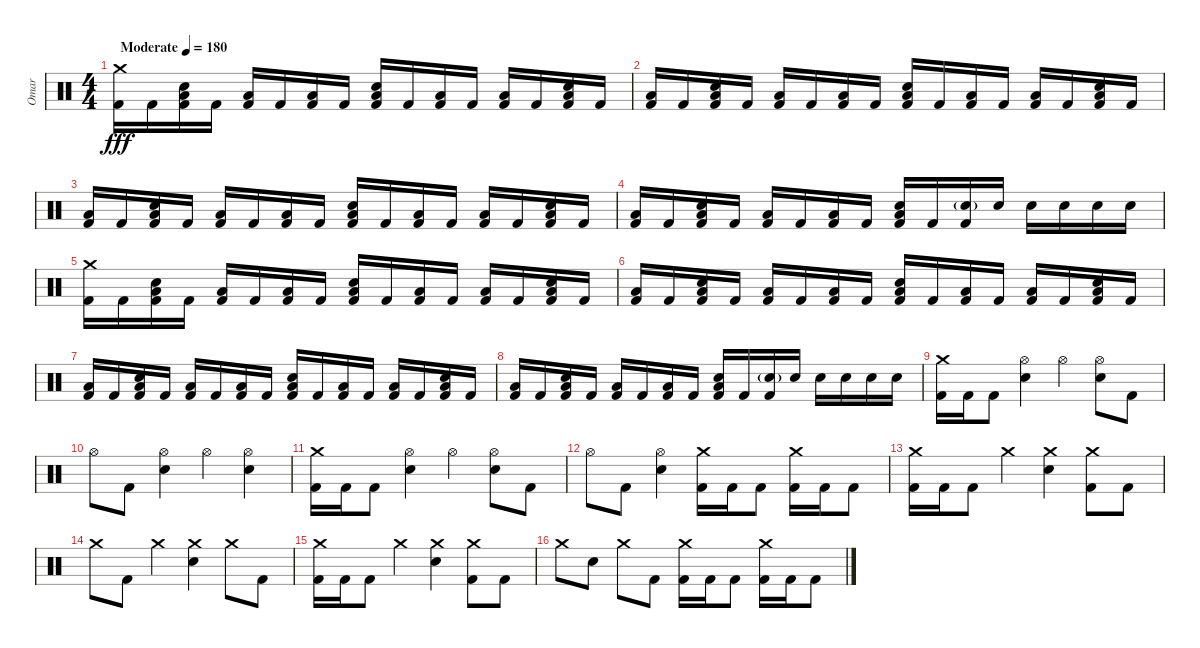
\track ("Omar" "Omar") {instrument percussion}
\staff {score}
\articulation defaults
\ts (4 4)
\tempo (180 "Moderate")
\clef neutral
\ks c
("Crash medium (hit)" "Kick (hit) 2").16{dy fff} "Kick (hit) 2".16 ("Electric Snare (hit)" "Low Floor Tom (hit)" "Kick (hit) 2").16 "Kick (hit) 2".16 ("Low Floor Tom (hit)" "Kick (hit) 2").16 "Kick (hit) 2".16 ("Low Floor Tom (hit)" "Kick (hit) 2").16 "Kick (hit) 2".16 ("Electric Snare (hit)" "Low Floor Tom (hit)" "Kick (hit) 2").16 "Kick (hit) 2".16 ("Low Floor Tom (hit)" "Kick (hit) 2").16 "Kick (hit) 2".16 ("Low Floor Tom (hit)" "Kick (hit) 2").16 "Kick (hit) 2".16 ("Electric Snare (hit)" "Low Floor Tom (hit)" "Kick (hit) 2").16 "Kick (hit) 2".16 |
("Low Floor Tom (hit)" "Kick (hit) 2").16 "Kick (hit) 2".16 ("Electric Snare (hit)" "Low Floor Tom (hit)" "Kick (hit) 2").16 "Kick (hit) 2".16 ("Low Floor Tom (hit)" "Kick (hit) 2").16 "Kick (hit) 2".16 ("Low Floor Tom (hit)" "Kick (hit) 2").16 "Kick (hit) 2".16 ("Electric Snare (hit)" "Low Floor Tom (hit)" "Kick (hit) 2").16 "Kick (hit) 2".16 ("Low Floor Tom (hit)" "Kick (hit) 2").16 "Kick (hit) 2".16 ("Low Floor Tom (hit)" "Kick (hit) 2").16 "Kick (hit) 2".16 ("Electric Snare (hit)" "Low Floor Tom (hit)" "Kick (hit) 2").16 "Kick (hit) 2".16 |
("Low Floor Tom (hit)" "Kick (hit) 2").16 "Kick (hit) 2".16 ("Electric Snare (hit)" "Low Floor Tom (hit)" "Kick (hit) 2").16 "Kick (hit) 2".16 ("Low Floor Tom (hit)" "Kick (hit) 2").16 "Kick (hit) 2".16 ("Low Floor Tom (hit)" "Kick (hit) 2").16 "Kick (hit) 2".16 ("Electric Snare (hit)" "Low Floor Tom (hit)" "Kick (hit) 2").16 "Kick (hit) 2".16 ("Low Floor Tom (hit)" "Kick (hit) 2").16 "Kick (hit) 2".16 ("Low Floor Tom (hit)" "Kick (hit) 2").16 "Kick (hit) 2".16 ("Electric Snare (hit)" "Low Floor Tom (hit)" "Kick (hit) 2").16 "Kick (hit) 2".16 |
("Low Floor Tom (hit)" "Kick (hit) 2").16 "Kick (hit) 2".16 ("Electric Snare (hit)" "Low Floor Tom (hit)" "Kick (hit) 2").16 "Kick (hit) 2".16 ("Low Floor Tom (hit)" "Kick (hit) 2").16 "Kick (hit) 2".16 ("Low Floor Tom (hit)" "Kick (hit) 2").16 "Kick (hit) 2".16 ("Electric Snare (hit)" "Low Floor Tom (hit)" "Kick (hit) 2").16 "Kick (hit) 2".16 ("Electric Snare (hit)"{g} "Kick (hit) 2").16 "Electric Snare (hit)".16 "Electric Snare (hit)".16 "Electric Snare (hit)".16 "Electric Snare (hit)".16 "Electric Snare (hit)".16 |
("Crash medium (hit)" "Kick (hit) 2").16 "Kick (hit) 2".16 ("Electric Snare (hit)" "Low Floor Tom (hit)" "Kick (hit) 2").16 "Kick (hit) 2".16 ("Low Floor Tom (hit)" "Kick (hit) 2").16 "Kick (hit) 2".16 ("Low Floor Tom (hit)" "Kick (hit) 2").16 "Kick (hit) 2".16 ("Electric Snare (hit)" "Low Floor Tom (hit)" "Kick (hit) 2").16 "Kick (hit) 2".16 ("Low Floor Tom (hit)" "Kick (hit) 2").16 "Kick (hit) 2".16 ("Low Floor Tom (hit)" "Kick (hit) 2").16 "Kick (hit) 2".16 ("Electric Snare (hit)" "Low Floor Tom (hit)" "Kick (hit) 2").16 "Kick (hit) 2".16 |
("Low Floor Tom (hit)" "Kick (hit) 2").16 "Kick (hit) 2".16 ("Electric Snare (hit)" "Low Floor Tom (hit)" "Kick (hit) 2").16 "Kick (hit) 2".16 ("Low Floor Tom (hit)" "Kick (hit) 2").16 "Kick (hit) 2".16 ("Low Floor Tom (hit)" "Kick (hit) 2").16 "Kick (hit) 2".16 ("Electric Snare (hit)" "Low Floor Tom (hit)" "Kick (hit) 2").16 "Kick (hit) 2".16 ("Low Floor Tom (hit)" "Kick (hit) 2").16 "Kick (hit) 2".16 ("Low Floor Tom (hit)" "Kick (hit) 2").16 "Kick (hit) 2".16 ("Electric Snare (hit)" "Low Floor Tom (hit)" "Kick (hit) 2").16 "Kick (hit) 2".16 |
("Low Floor Tom (hit)" "Kick (hit) 2").16 "Kick (hit) 2".16 ("Electric Snare (hit)" "Low Floor Tom (hit)" "Kick (hit) 2").16 "Kick (hit) 2".16 ("Low Floor Tom (hit)" "Kick (hit) 2").16 "Kick (hit) 2".16 ("Low Floor Tom (hit)" "Kick (hit) 2").16 "Kick (hit) 2".16 ("Electric Snare (hit)" "Low Floor Tom (hit)" "Kick (hit) 2").16 "Kick (hit) 2".16 ("Low Floor Tom (hit)" "Kick (hit) 2").16 "Kick (hit) 2".16 ("Low Floor Tom (hit)" "Kick (hit) 2").16 "Kick (hit) 2".16 ("Electric Snare (hit)" "Low Floor Tom (hit)" "Kick (hit) 2").16 "Kick (hit) 2".16 |
("Low Floor Tom (hit)" "Kick (hit) 2").16 "Kick (hit) 2".16 ("Electric Snare (hit)" "Low Floor Tom (hit)" "Kick (hit) 2").16 "Kick (hit) 2".16 ("Low Floor Tom (hit)" "Kick (hit) 2").16 "Kick (hit) 2".16 ("Low Floor Tom (hit)" "Kick (hit) 2").16 "Kick (hit) 2".16 ("Electric Snare (hit)" "Low Floor Tom (hit)" "Kick (hit) 2").16 "Kick (hit) 2".16 ("Electric Snare (hit)"{g} "Kick (hit) 2").16 "Electric Snare (hit)".16 "Electric Snare (hit)".16 "Electric Snare (hit)".16 "Electric Snare (hit)".16 "Electric Snare (hit)".16 |
("Crash medium (hit)" "Kick (hit) 2").16 "Kick (hit) 2".16 "Kick (hit) 2".8 ("Hi-Hat (open)" "Electric Snare (hit)").4 "Hi-Hat (open)".4 ("Hi-Hat (open)" "Electric Snare (hit)").8 "Kick (hit) 2".8 |
"Hi-Hat (open)".8 "Kick (hit) 2".8 ("Hi-Hat (open)" "Electric Snare (hit)").4 "Hi-Hat (open)".4 ("Hi-Hat (open)" "Electric Snare (hit)").4 |
("Crash medium (hit)" "Kick (hit) 2").16 "Kick (hit) 2".16 "Kick (hit) 2".8 ("Hi-Hat (open)" "Electric Snare (hit)").4 "Hi-Hat (open)".4 ("Hi-Hat (open)" "Electric Snare (hit)").8 "Kick (hit) 2".8 |
"Hi-Hat (open)".8 "Kick (hit) 2".8 ("Hi-Hat (open)" "Electric Snare (hit)").4 ("Crash medium (hit)" "Kick (hit) 2").16 "Kick (hit) 2".16 "Kick (hit) 2".8 ("Crash medium (hit)" "Kick (hit) 2").16 "Kick (hit) 2".16 "Kick (hit) 2".8 |
("Crash medium (hit)" "Kick (hit) 2").16 "Kick (hit) 2".16 "Kick (hit) 2".8 "Crash medium (hit)".4 ("Crash medium (hit)" "Electric Snare (hit)").4 ("Crash medium (hit)" "Kick (hit) 2").8 "Kick (hit) 2".8 |
"Crash medium (hit)".8 "Kick (hit) 2".8 "Crash medium (hit)".4 ("Crash medium (hit)" "Electric Snare (hit)").4 "Crash medium (hit)".8 "Kick (hit) 2".8 |
("Crash medium (hit)" "Kick (hit) 2").16 "Kick (hit) 2".16 "Kick (hit) 2".8 "Crash medium (hit)".4 ("Crash medium (hit)" "Electric Snare (hit)").4 ("Crash medium (hit)" "Kick (hit) 2").8 "Kick (hit) 2".8 |
"Crash medium (hit)".8 "Electric Snare (hit)".8 "Crash medium (hit)".8 "Kick (hit) 2".8 ("Crash medium (hit)" "Kick (hit) 2").16 "Kick (hit) 2".16 "Kick (hit) 2".8 ("Crash medium (hit)" "Kick (hit) 2").16 "Kick (hit) 2".16 "Kick (hit) 2".8
